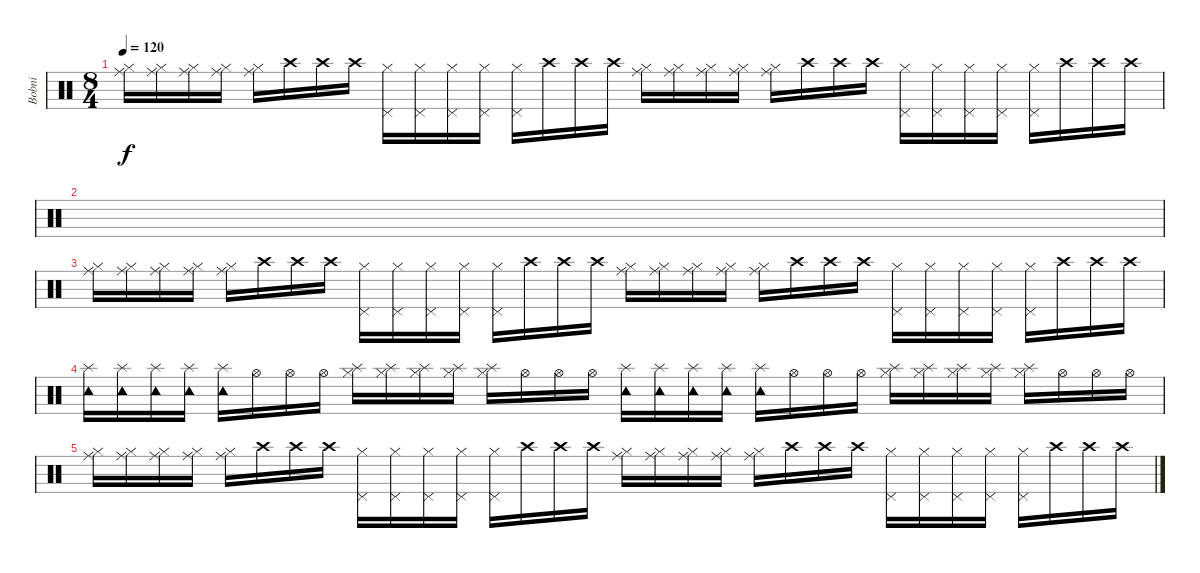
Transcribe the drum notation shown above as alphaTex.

\track ("Bobni" "Bobni") {instrument percussion}
\staff {score}
\articulation defaults
\ts (8 4)
\tempo 120
\clef neutral
\ks c
("Hi-Hat (closed)" "Ride (middle)").16{dy f} ("Hi-Hat (closed)" "Ride (middle)").16 ("Hi-Hat (closed)" "Ride (middle)").16 ("Hi-Hat (closed)" "Ride (middle)").16 ("Hi-Hat (closed)" "Ride (middle)").16 "Crash high (hit)".16 "Crash high (hit)".16 "Crash high (hit)".16 ("Hi-Hat (closed)" "Pedal Hi-Hat (hit)").16 ("Hi-Hat (closed)" "Pedal Hi-Hat (hit)").16 ("Hi-Hat (closed)" "Pedal Hi-Hat (hit)").16 ("Hi-Hat (closed)" "Pedal Hi-Hat (hit)").16 ("Hi-Hat (closed)" "Pedal Hi-Hat (hit)").16 "Crash high (hit)".16 "Crash high (hit)".16 "Crash high (hit)".16 ("Hi-Hat (closed)" "Ride (middle)").16 ("Hi-Hat (closed)" "Ride (middle)").16 ("Hi-Hat (closed)" "Ride (middle)").16 ("Hi-Hat (closed)" "Ride (middle)").16 ("Hi-Hat (closed)" "Ride (middle)").16 "Crash high (hit)".16 "Crash high (hit)".16 "Crash high (hit)".16 ("Hi-Hat (closed)" "Pedal Hi-Hat (hit)").16 ("Hi-Hat (closed)" "Pedal Hi-Hat (hit)").16 ("Hi-Hat (closed)" "Pedal Hi-Hat (hit)").16 ("Hi-Hat (closed)" "Pedal Hi-Hat (hit)").16 ("Hi-Hat (closed)" "Pedal Hi-Hat (hit)").16 "Crash high (hit)".16 "Crash high (hit)".16 "Crash high (hit)".16 |
|
("Hi-Hat (closed)" "Ride (middle)").16 ("Hi-Hat (closed)" "Ride (middle)").16 ("Hi-Hat (closed)" "Ride (middle)").16 ("Hi-Hat (closed)" "Ride (middle)").16 ("Hi-Hat (closed)" "Ride (middle)").16 "Crash high (hit)".16 "Crash high (hit)".16 "Crash high (hit)".16 ("Hi-Hat (closed)" "Pedal Hi-Hat (hit)").16 ("Hi-Hat (closed)" "Pedal Hi-Hat (hit)").16 ("Hi-Hat (closed)" "Pedal Hi-Hat (hit)").16 ("Hi-Hat (closed)" "Pedal Hi-Hat (hit)").16 ("Hi-Hat (closed)" "Pedal Hi-Hat (hit)").16 "Crash high (hit)".16 "Crash high (hit)".16 "Crash high (hit)".16 ("Hi-Hat (closed)" "Ride (middle)").16 ("Hi-Hat (closed)" "Ride (middle)").16 ("Hi-Hat (closed)" "Ride (middle)").16 ("Hi-Hat (closed)" "Ride (middle)").16 ("Hi-Hat (closed)" "Ride (middle)").16 "Crash high (hit)".16 "Crash high (hit)".16 "Crash high (hit)".16 ("Hi-Hat (closed)" "Pedal Hi-Hat (hit)").16 ("Hi-Hat (closed)" "Pedal Hi-Hat (hit)").16 ("Hi-Hat (closed)" "Pedal Hi-Hat (hit)").16 ("Hi-Hat (closed)" "Pedal Hi-Hat (hit)").16 ("Hi-Hat (closed)" "Pedal Hi-Hat (hit)").16 "Crash high (hit)".16 "Crash high (hit)".16 "Crash high (hit)".16 |
("Tambourine (hit)" "Splash (hit)").16 ("Tambourine (hit)" "Splash (hit)").16 ("Tambourine (hit)" "Splash (hit)").16 ("Tambourine (hit)" "Splash (hit)").16 ("Tambourine (hit)" "Splash (hit)").16 "Hi-Hat (open)".16 "Hi-Hat (open)".16 "Hi-Hat (open)".16 ("Hi-Hat (closed)" "Splash (hit)").16 ("Hi-Hat (closed)" "Splash (hit)").16 ("Hi-Hat (closed)" "Splash (hit)").16 ("Hi-Hat (closed)" "Splash (hit)").16 ("Hi-Hat (closed)" "Splash (hit)").16 "Hi-Hat (open)".16 "Hi-Hat (open)".16 "Hi-Hat (open)".16 ("Tambourine (hit)" "Splash (hit)").16 ("Tambourine (hit)" "Splash (hit)").16 ("Tambourine (hit)" "Splash (hit)").16 ("Tambourine (hit)" "Splash (hit)").16 ("Tambourine (hit)" "Splash (hit)").16 "Hi-Hat (open)".16 "Hi-Hat (open)".16 "Hi-Hat (open)".16 ("Hi-Hat (closed)" "Splash (hit)").16 ("Hi-Hat (closed)" "Splash (hit)").16 ("Hi-Hat (closed)" "Splash (hit)").16 ("Hi-Hat (closed)" "Splash (hit)").16 ("Hi-Hat (closed)" "Splash (hit)").16 "Hi-Hat (open)".16 "Hi-Hat (open)".16 "Hi-Hat (open)".16 |
("Hi-Hat (closed)" "Ride (middle)").16 ("Hi-Hat (closed)" "Ride (middle)").16 ("Hi-Hat (closed)" "Ride (middle)").16 ("Hi-Hat (closed)" "Ride (middle)").16 ("Hi-Hat (closed)" "Ride (middle)").16 "Crash high (hit)".16 "Crash high (hit)".16 "Crash high (hit)".16 ("Hi-Hat (closed)" "Pedal Hi-Hat (hit)").16 ("Hi-Hat (closed)" "Pedal Hi-Hat (hit)").16 ("Hi-Hat (closed)" "Pedal Hi-Hat (hit)").16 ("Hi-Hat (closed)" "Pedal Hi-Hat (hit)").16 ("Hi-Hat (closed)" "Pedal Hi-Hat (hit)").16 "Crash high (hit)".16 "Crash high (hit)".16 "Crash high (hit)".16 ("Hi-Hat (closed)" "Ride (middle)").16 ("Hi-Hat (closed)" "Ride (middle)").16 ("Hi-Hat (closed)" "Ride (middle)").16 ("Hi-Hat (closed)" "Ride (middle)").16 ("Hi-Hat (closed)" "Ride (middle)").16 "Crash high (hit)".16 "Crash high (hit)".16 "Crash high (hit)".16 ("Hi-Hat (closed)" "Pedal Hi-Hat (hit)").16 ("Hi-Hat (closed)" "Pedal Hi-Hat (hit)").16 ("Hi-Hat (closed)" "Pedal Hi-Hat (hit)").16 ("Hi-Hat (closed)" "Pedal Hi-Hat (hit)").16 ("Hi-Hat (closed)" "Pedal Hi-Hat (hit)").16 "Crash high (hit)".16 "Crash high (hit)".16 "Crash high (hit)".16
